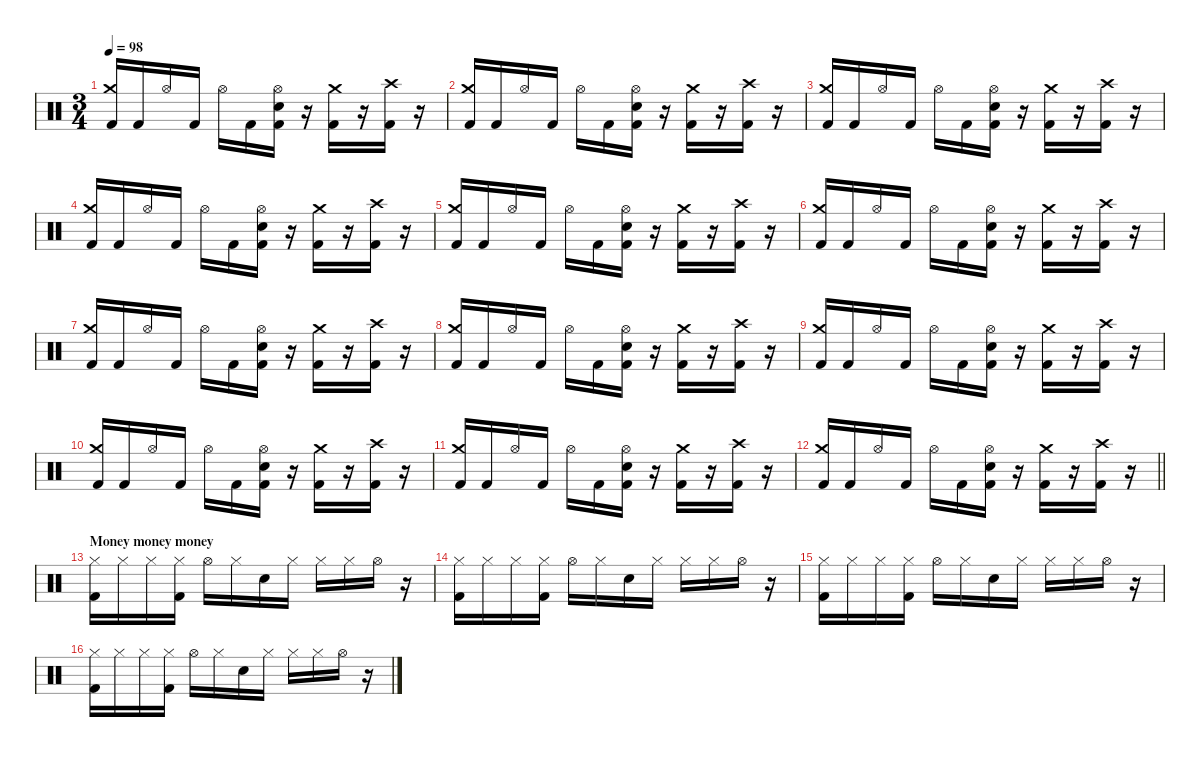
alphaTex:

\defaultSystemsLayout 4
\hideDynamics
\bracketExtendMode nobrackets
\singleTrackTrackNamePolicy hidden
\multiTrackTrackNamePolicy hidden
\firstSystemTrackNameMode fullname
\firstSystemTrackNameOrientation horizontal
\otherSystemsTrackNameOrientation horizontal
\track ("Drums" "drm.") {instrument percussion}
\staff {score}
\articulation defaults
\ts (3 4)
\tempo 98
\clef neutral
\ks c
("Crash medium (hit)" "Kick (hit) 2").16{dy f beam Up} "Kick (hit) 2".16{beam Up} "Hi-Hat (open)".16{beam Up} "Kick (hit) 2".16{beam Up} "Hi-Hat (open)".16{beam Down} "Kick (hit) 2".16{beam Down} ("Hi-Hat (open)" "Snare (hit) 2" "Kick (hit) 2").16{beam Down} r.16{beam Down} ("Crash medium (hit)" "Kick (hit) 2").16{beam Down} r.16{beam Down} ("Crash high (hit)" "Kick (hit) 2").16{beam Down} r.16{beam Down} |
("Crash medium (hit)" "Kick (hit) 2").16{beam Up} "Kick (hit) 2".16{beam Up} "Hi-Hat (open)".16{beam Up} "Kick (hit) 2".16{beam Up} "Hi-Hat (open)".16{beam Down} "Kick (hit) 2".16{beam Down} ("Hi-Hat (open)" "Snare (hit) 2" "Kick (hit) 2").16{beam Down} r.16{beam Down} ("Crash medium (hit)" "Kick (hit) 2").16{beam Down} r.16{beam Down} ("Crash high (hit)" "Kick (hit) 2").16{beam Down} r.16{beam Down} |
("Crash medium (hit)" "Kick (hit) 2").16{beam Up} "Kick (hit) 2".16{beam Up} "Hi-Hat (open)".16{beam Up} "Kick (hit) 2".16{beam Up} "Hi-Hat (open)".16{beam Down} "Kick (hit) 2".16{beam Down} ("Hi-Hat (open)" "Snare (hit) 2" "Kick (hit) 2").16{beam Down} r.16{beam Down} ("Crash medium (hit)" "Kick (hit) 2").16{beam Down} r.16{beam Down} ("Crash high (hit)" "Kick (hit) 2").16{beam Down} r.16{beam Down} |
("Crash medium (hit)" "Kick (hit) 2").16{beam Up} "Kick (hit) 2".16{beam Up} "Hi-Hat (open)".16{beam Up} "Kick (hit) 2".16{beam Up} "Hi-Hat (open)".16{beam Down} "Kick (hit) 2".16{beam Down} ("Hi-Hat (open)" "Snare (hit) 2" "Kick (hit) 2").16{beam Down} r.16{beam Down} ("Crash medium (hit)" "Kick (hit) 2").16{beam Down} r.16{beam Down} ("Crash high (hit)" "Kick (hit) 2").16{beam Down} r.16{beam Down} |
("Crash medium (hit)" "Kick (hit) 2").16{beam Up} "Kick (hit) 2".16{beam Up} "Hi-Hat (open)".16{beam Up} "Kick (hit) 2".16{beam Up} "Hi-Hat (open)".16{beam Down} "Kick (hit) 2".16{beam Down} ("Hi-Hat (open)" "Snare (hit) 2" "Kick (hit) 2").16{beam Down} r.16{beam Down} ("Crash medium (hit)" "Kick (hit) 2").16{beam Down} r.16{beam Down} ("Crash high (hit)" "Kick (hit) 2").16{beam Down} r.16{beam Down} |
("Crash medium (hit)" "Kick (hit) 2").16{beam Up} "Kick (hit) 2".16{beam Up} "Hi-Hat (open)".16{beam Up} "Kick (hit) 2".16{beam Up} "Hi-Hat (open)".16{beam Down} "Kick (hit) 2".16{beam Down} ("Hi-Hat (open)" "Snare (hit) 2" "Kick (hit) 2").16{beam Down} r.16{beam Down} ("Crash medium (hit)" "Kick (hit) 2").16{beam Down} r.16{beam Down} ("Crash high (hit)" "Kick (hit) 2").16{beam Down} r.16{beam Down} |
("Crash medium (hit)" "Kick (hit) 2").16{beam Up} "Kick (hit) 2".16{beam Up} "Hi-Hat (open)".16{beam Up} "Kick (hit) 2".16{beam Up} "Hi-Hat (open)".16{beam Down} "Kick (hit) 2".16{beam Down} ("Hi-Hat (open)" "Snare (hit) 2" "Kick (hit) 2").16{beam Down} r.16{beam Down} ("Crash medium (hit)" "Kick (hit) 2").16{beam Down} r.16{beam Down} ("Crash high (hit)" "Kick (hit) 2").16{beam Down} r.16{beam Down} |
("Crash medium (hit)" "Kick (hit) 2").16{beam Up} "Kick (hit) 2".16{beam Up} "Hi-Hat (open)".16{beam Up} "Kick (hit) 2".16{beam Up} "Hi-Hat (open)".16{beam Down} "Kick (hit) 2".16{beam Down} ("Hi-Hat (open)" "Snare (hit) 2" "Kick (hit) 2").16{beam Down} r.16{beam Down} ("Crash medium (hit)" "Kick (hit) 2").16{beam Down} r.16{beam Down} ("Crash high (hit)" "Kick (hit) 2").16{beam Down} r.16{beam Down} |
("Crash medium (hit)" "Kick (hit) 2").16{beam Up} "Kick (hit) 2".16{beam Up} "Hi-Hat (open)".16{beam Up} "Kick (hit) 2".16{beam Up} "Hi-Hat (open)".16{beam Down} "Kick (hit) 2".16{beam Down} ("Hi-Hat (open)" "Snare (hit) 2" "Kick (hit) 2").16{beam Down} r.16{beam Down} ("Crash medium (hit)" "Kick (hit) 2").16{beam Down} r.16{beam Down} ("Crash high (hit)" "Kick (hit) 2").16{beam Down} r.16{beam Down} |
("Crash medium (hit)" "Kick (hit) 2").16{beam Up} "Kick (hit) 2".16{beam Up} "Hi-Hat (open)".16{beam Up} "Kick (hit) 2".16{beam Up} "Hi-Hat (open)".16{beam Down} "Kick (hit) 2".16{beam Down} ("Hi-Hat (open)" "Snare (hit) 2" "Kick (hit) 2").16{beam Down} r.16{beam Down} ("Crash medium (hit)" "Kick (hit) 2").16{beam Down} r.16{beam Down} ("Crash high (hit)" "Kick (hit) 2").16{beam Down} r.16{beam Down} |
("Crash medium (hit)" "Kick (hit) 2").16{beam Up} "Kick (hit) 2".16{beam Up} "Hi-Hat (open)".16{beam Up} "Kick (hit) 2".16{beam Up} "Hi-Hat (open)".16{beam Down} "Kick (hit) 2".16{beam Down} ("Hi-Hat (open)" "Snare (hit) 2" "Kick (hit) 2").16{beam Down} r.16{beam Down} ("Crash medium (hit)" "Kick (hit) 2").16{beam Down} r.16{beam Down} ("Crash high (hit)" "Kick (hit) 2").16{beam Down} r.16{beam Down} |
\barLineRight lightlight
("Crash medium (hit)" "Kick (hit) 2").16{beam Up} "Kick (hit) 2".16{beam Up} "Hi-Hat (open)".16{beam Up} "Kick (hit) 2".16{beam Up} "Hi-Hat (open)".16{beam Down} "Kick (hit) 2".16{beam Down} ("Hi-Hat (open)" "Snare (hit) 2" "Kick (hit) 2").16{beam Down} r.16{beam Down} ("Crash medium (hit)" "Kick (hit) 2").16{beam Down} r.16{beam Down} ("Crash high (hit)" "Kick (hit) 2").16{beam Down} r.16{beam Down} |
\section ("" "Money money money")
("Hi-Hat (closed)" "Kick (hit) 2").16{beam Down} "Hi-Hat (closed)".16{beam Down} "Hi-Hat (closed)".16{beam Down} ("Hi-Hat (closed)" "Kick (hit) 2").16{beam Down} "Hi-Hat (open)".16{beam Down} "Hi-Hat (closed)".16{beam Down} "Snare (hit) 2".16{beam Down} "Hi-Hat (closed)".16{beam Down} "Hi-Hat (closed)".16{beam Down} "Hi-Hat (closed)".16{beam Down} "Hi-Hat (open)".16{beam Down} r.16{beam Down} |
("Hi-Hat (closed)" "Kick (hit) 2").16{beam Down} "Hi-Hat (closed)".16{beam Down} "Hi-Hat (closed)".16{beam Down} ("Hi-Hat (closed)" "Kick (hit) 2").16{beam Down} "Hi-Hat (open)".16{beam Down} "Hi-Hat (closed)".16{beam Down} "Snare (hit) 2".16{beam Down} "Hi-Hat (closed)".16{beam Down} "Hi-Hat (closed)".16{beam Down} "Hi-Hat (closed)".16{beam Down} "Hi-Hat (open)".16{beam Down} r.16{beam Down} |
("Hi-Hat (closed)" "Kick (hit) 2").16{beam Down} "Hi-Hat (closed)".16{beam Down} "Hi-Hat (closed)".16{beam Down} ("Hi-Hat (closed)" "Kick (hit) 2").16{beam Down} "Hi-Hat (open)".16{beam Down} "Hi-Hat (closed)".16{beam Down} "Snare (hit) 2".16{beam Down} "Hi-Hat (closed)".16{beam Down} "Hi-Hat (closed)".16{beam Down} "Hi-Hat (closed)".16{beam Down} "Hi-Hat (open)".16{beam Down} r.16{beam Down} |
("Hi-Hat (closed)" "Kick (hit) 2").16{beam Down} "Hi-Hat (closed)".16{beam Down} "Hi-Hat (closed)".16{beam Down} ("Hi-Hat (closed)" "Kick (hit) 2").16{beam Down} "Hi-Hat (open)".16{beam Down} "Hi-Hat (closed)".16{beam Down} "Snare (hit) 2".16{beam Down} "Hi-Hat (closed)".16{beam Down} "Hi-Hat (closed)".16{beam Down} "Hi-Hat (closed)".16{beam Down} "Hi-Hat (open)".16{beam Down} r.16{beam Down}
